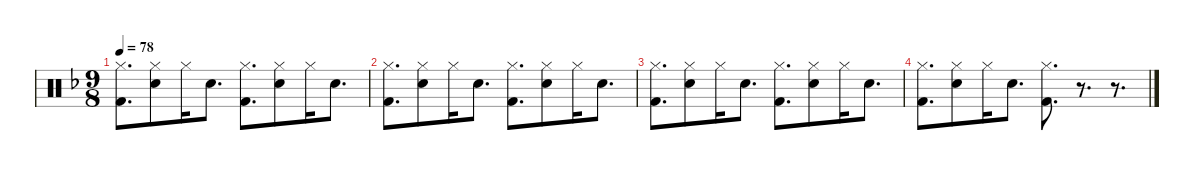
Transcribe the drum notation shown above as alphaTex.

\defaultSystemsLayout 4
\hideDynamics
\bracketExtendMode nobrackets
\singleTrackTrackNamePolicy hidden
\multiTrackTrackNamePolicy hidden
\firstSystemTrackNameMode fullname
\firstSystemTrackNameOrientation horizontal
\otherSystemsTrackNameOrientation horizontal
\track ("Percussion" "drm.") {instrument percussion}
\staff {score}
\articulation defaults
\ts (9 8)
\tempo 78
\clef neutral
\ks f
("Hi-Hat (closed)"{acc forcenatural} "Kick (hit) 2"{acc forcenatural}).8{d dy ff beam Down} ("Hi-Hat (closed)"{acc forcenatural} "Snare (hit) 2"{acc forcenatural}).8{dy mf beam Down} "Hi-Hat (closed)"{acc forcenatural}.16{dy f beam Down beam merge} "Snare (hit) 2"{acc forcenatural}.8{d dy mf beam Down beam split} ("Hi-Hat (closed)"{acc forcenatural} "Kick (hit) 2"{acc forcenatural}).8{d dy ff beam Down beam merge} ("Hi-Hat (closed)"{acc forcenatural} "Snare (hit) 2"{acc forcenatural}).8{dy mf beam Down} "Hi-Hat (closed)"{acc forcenatural}.16{dy f beam Down} "Snare (hit) 2"{acc forcenatural}.8{d dy mf beam Down} |
("Hi-Hat (closed)"{acc forcenatural} "Kick (hit) 2"{acc forcenatural}).8{d dy ff beam Down} ("Hi-Hat (closed)"{acc forcenatural} "Snare (hit) 2"{acc forcenatural}).8{dy mf beam Down} "Hi-Hat (closed)"{acc forcenatural}.16{dy f beam Down beam merge} "Snare (hit) 2"{acc forcenatural}.8{d dy mf beam Down beam split} ("Hi-Hat (closed)"{acc forcenatural} "Kick (hit) 2"{acc forcenatural}).8{d dy ff beam Down beam merge} ("Hi-Hat (closed)"{acc forcenatural} "Snare (hit) 2"{acc forcenatural}).8{dy mf beam Down} "Hi-Hat (closed)"{acc forcenatural}.16{dy f beam Down} "Snare (hit) 2"{acc forcenatural}.8{d dy mf beam Down} |
("Hi-Hat (closed)"{acc forcenatural} "Kick (hit) 2"{acc forcenatural}).8{d dy ff beam Down} ("Hi-Hat (closed)"{acc forcenatural} "Snare (hit) 2"{acc forcenatural}).8{dy mf beam Down} "Hi-Hat (closed)"{acc forcenatural}.16{dy f beam Down beam merge} "Snare (hit) 2"{acc forcenatural}.8{d dy mf beam Down beam split} ("Hi-Hat (closed)"{acc forcenatural} "Kick (hit) 2"{acc forcenatural}).8{d dy ff beam Down beam merge} ("Hi-Hat (closed)"{acc forcenatural} "Snare (hit) 2"{acc forcenatural}).8{dy mf beam Down} "Hi-Hat (closed)"{acc forcenatural}.16{dy f beam Down} "Snare (hit) 2"{acc forcenatural}.8{d dy mf beam Down} |
("Hi-Hat (closed)"{acc forcenatural} "Kick (hit) 2"{acc forcenatural}).8{d dy ff beam Down} ("Hi-Hat (closed)"{acc forcenatural} "Snare (hit) 2"{acc forcenatural}).8{dy mf beam Down} "Hi-Hat (closed)"{acc forcenatural}.16{dy f beam Down beam merge} "Snare (hit) 2"{acc forcenatural}.8{d dy mf beam Down beam split} ("Hi-Hat (closed)"{acc forcenatural} "Kick (hit) 2"{acc forcenatural}).8{d dy ff beam Down} r.8{d beam Down} r.8{d beam Down}
